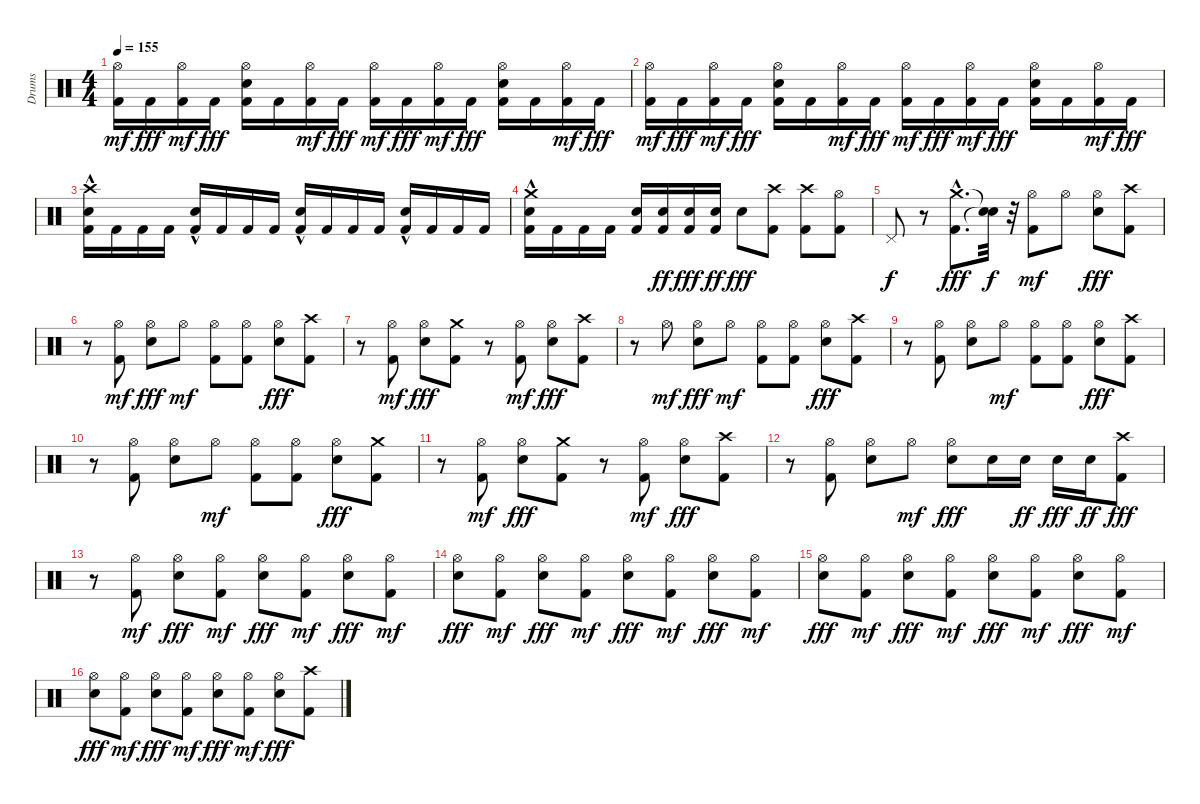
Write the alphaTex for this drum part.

\track ("Drums" "Drums") {instrument percussion}
\staff {score}
\articulation defaults
\ts (4 4)
\tempo 155
\clef neutral
\ks c
("Kick (hit) 2" "Hi-Hat (open)").16{dy mf} "Kick (hit) 2".16{dy fff} ("Kick (hit) 2" "Hi-Hat (open)").16{dy mf} "Kick (hit) 2".16{dy fff} ("Kick (hit) 2" "Snare (hit) 2" "Hi-Hat (open)").16 "Kick (hit) 2".16 ("Kick (hit) 2" "Hi-Hat (open)").16{dy mf} "Kick (hit) 2".16{dy fff} ("Kick (hit) 2" "Hi-Hat (open)").16{dy mf} "Kick (hit) 2".16{dy fff} ("Kick (hit) 2" "Hi-Hat (open)").16{dy mf} "Kick (hit) 2".16{dy fff} ("Kick (hit) 2" "Snare (hit) 2" "Hi-Hat (open)").16 "Kick (hit) 2".16 ("Kick (hit) 2" "Hi-Hat (open)").16{dy mf} "Kick (hit) 2".16{dy fff} |
("Kick (hit) 2" "Hi-Hat (open)").16{dy mf} "Kick (hit) 2".16{dy fff} ("Kick (hit) 2" "Hi-Hat (open)").16{dy mf} "Kick (hit) 2".16{dy fff} ("Kick (hit) 2" "Snare (hit) 2" "Hi-Hat (open)").16 "Kick (hit) 2".16 ("Kick (hit) 2" "Hi-Hat (open)").16{dy mf} "Kick (hit) 2".16{dy fff} ("Kick (hit) 2" "Hi-Hat (open)").16{dy mf} "Kick (hit) 2".16{dy fff} ("Kick (hit) 2" "Hi-Hat (open)").16{dy mf} "Kick (hit) 2".16{dy fff} ("Kick (hit) 2" "Snare (hit) 2" "Hi-Hat (open)").16 "Kick (hit) 2".16 ("Kick (hit) 2" "Hi-Hat (open)").16{dy mf} "Kick (hit) 2".16{dy fff} |
("Kick (hit) 2" "Snare (hit) 2"{hac} "Crash high (hit)"{hac}).16 "Kick (hit) 2".16 "Kick (hit) 2".16 "Kick (hit) 2".16 ("Kick (hit) 2" "Snare (hit) 2"{hac}).16 "Kick (hit) 2".16 "Kick (hit) 2".16 "Kick (hit) 2".16 ("Kick (hit) 2" "Snare (hit) 2"{hac}).16 "Kick (hit) 2".16 "Kick (hit) 2".16 "Kick (hit) 2".16 ("Kick (hit) 2" "Snare (hit) 2"{hac}).16 "Kick (hit) 2".16 "Kick (hit) 2".16 "Kick (hit) 2".16 |
("Kick (hit) 2" "Snare (hit) 2"{hac} "Crash medium (hit)"{hac}).16 "Kick (hit) 2".16 "Kick (hit) 2".16 "Kick (hit) 2".16 ("Kick (hit) 2" "Snare (hit) 2").16 ("Kick (hit) 2" "Snare (hit) 2").16{dy ff} ("Kick (hit) 2" "Snare (hit) 2").16{dy fff} ("Kick (hit) 2" "Snare (hit) 2").16{dy ff} "Snare (hit) 2".8{dy fff} ("Kick (hit) 2" "Crash high (hit)").8 ("Kick (hit) 2" "Crash high (hit)").8 ("Kick (hit) 2" "Hi-Hat (open)").8 |
"Pedal Hi-Hat (hit)".8{dy f} r.8 ("Crash medium (hit)"{hac} "Kick (hit) 2"{hac}).8{d dy fff} ("Snare (hit)"{t} "Snare (hit)"{t}).32{dy f} r.32 ("Kick (hit) 2" "Hi-Hat (open)").8{dy mf} "Hi-Hat (open)".8 ("Snare (hit) 2" "Hi-Hat (open)").8{dy fff} ("Kick (hit) 2" "Crash high (hit)").8 |
r.8 ("Kick (hit) 2" "Hi-Hat (open)").8{dy mf} ("Snare (hit) 2" "Hi-Hat (open)").8{dy fff} "Hi-Hat (open)".8{dy mf} ("Kick (hit) 2" "Hi-Hat (open)").8 ("Kick (hit) 2" "Hi-Hat (open)").8 ("Snare (hit) 2" "Hi-Hat (open)").8{dy fff} ("Kick (hit) 2" "Crash high (hit)").8 |
r.8 ("Kick (hit) 2" "Hi-Hat (open)").8{dy mf} ("Snare (hit) 2" "Hi-Hat (open)").8{dy fff} ("Kick (hit) 2" "Crash medium (hit)").8 r.8 ("Kick (hit) 2" "Hi-Hat (open)").8{dy mf} ("Snare (hit) 2" "Hi-Hat (open)").8{dy fff} ("Kick (hit) 2" "Crash high (hit)").8 |
r.8 "Hi-Hat (open)".8{dy mf} ("Snare (hit) 2" "Hi-Hat (open)").8{dy fff} "Hi-Hat (open)".8{dy mf} ("Kick (hit) 2" "Hi-Hat (open)").8 ("Kick (hit) 2" "Hi-Hat (open)").8 ("Snare (hit) 2" "Hi-Hat (open)").8{dy fff} ("Kick (hit) 2" "Crash high (hit)").8 |
r.8 ("Hi-Hat (open)" "Kick (hit) 2").8 ("Snare (hit) 2" "Hi-Hat (open)").8 "Hi-Hat (open)".8{dy mf} ("Kick (hit) 2" "Hi-Hat (open)").8 ("Kick (hit) 2" "Hi-Hat (open)").8 ("Snare (hit) 2" "Hi-Hat (open)").8{dy fff} ("Kick (hit) 2" "Crash high (hit)").8 |
r.8 ("Hi-Hat (open)" "Kick (hit) 2").8 ("Snare (hit) 2" "Hi-Hat (open)").8 "Hi-Hat (open)".8{dy mf} ("Kick (hit) 2" "Hi-Hat (open)").8 ("Kick (hit) 2" "Hi-Hat (open)").8 ("Snare (hit) 2" "Hi-Hat (open)").8{dy fff} ("Kick (hit) 2" "Crash medium (hit)").8 |
r.8 ("Kick (hit) 2" "Hi-Hat (open)").8{dy mf} ("Snare (hit) 2" "Hi-Hat (open)").8{dy fff} ("Kick (hit) 2" "Crash medium (hit)").8 r.8 ("Kick (hit) 2" "Hi-Hat (open)").8{dy mf} ("Snare (hit) 2" "Hi-Hat (open)").8{dy fff} ("Kick (hit) 2" "Crash high (hit)").8 |
r.8 ("Hi-Hat (open)" "Kick (hit) 2").8 ("Snare (hit) 2" "Hi-Hat (open)").8 "Hi-Hat (open)".8{dy mf} ("Hi-Hat (open)" "Snare (hit) 2").8{dy fff} "Snare (hit) 2".16 "Snare (hit) 2".16{dy ff} "Snare (hit) 2".16{dy fff} "Snare (hit) 2".16{dy ff} ("Kick (hit) 2" "Crash high (hit)").8{dy fff} |
r.8 ("Kick (hit) 2" "Hi-Hat (open)").8{dy mf} ("Snare (hit) 2" "Hi-Hat (open)").8{dy fff} ("Kick (hit) 2" "Hi-Hat (open)").8{dy mf} ("Snare (hit) 2" "Hi-Hat (open)").8{dy fff} ("Kick (hit) 2" "Hi-Hat (open)").8{dy mf} ("Snare (hit) 2" "Hi-Hat (open)").8{dy fff} ("Kick (hit) 2" "Hi-Hat (open)").8{dy mf} |
("Snare (hit) 2" "Hi-Hat (open)").8{dy fff} ("Kick (hit) 2" "Hi-Hat (open)").8{dy mf} ("Snare (hit) 2" "Hi-Hat (open)").8{dy fff} ("Kick (hit) 2" "Hi-Hat (open)").8{dy mf} ("Snare (hit) 2" "Hi-Hat (open)").8{dy fff} ("Kick (hit) 2" "Hi-Hat (open)").8{dy mf} ("Snare (hit) 2" "Hi-Hat (open)").8{dy fff} ("Kick (hit) 2" "Hi-Hat (open)").8{dy mf} |
("Snare (hit) 2" "Hi-Hat (open)").8{dy fff} ("Kick (hit) 2" "Hi-Hat (open)").8{dy mf} ("Snare (hit) 2" "Hi-Hat (open)").8{dy fff} ("Kick (hit) 2" "Hi-Hat (open)").8{dy mf} ("Snare (hit) 2" "Hi-Hat (open)").8{dy fff} ("Kick (hit) 2" "Hi-Hat (open)").8{dy mf} ("Snare (hit) 2" "Hi-Hat (open)").8{dy fff} ("Kick (hit) 2" "Hi-Hat (open)").8{dy mf} |
("Snare (hit) 2" "Hi-Hat (open)").8{dy fff} ("Kick (hit) 2" "Hi-Hat (open)").8{dy mf} ("Snare (hit) 2" "Hi-Hat (open)").8{dy fff} ("Kick (hit) 2" "Hi-Hat (open)").8{dy mf} ("Snare (hit) 2" "Hi-Hat (open)").8{dy fff} ("Kick (hit) 2" "Hi-Hat (open)").8{dy mf} ("Snare (hit) 2" "Hi-Hat (open)").8{dy fff} ("Kick (hit) 2" "Crash high (hit)").8
